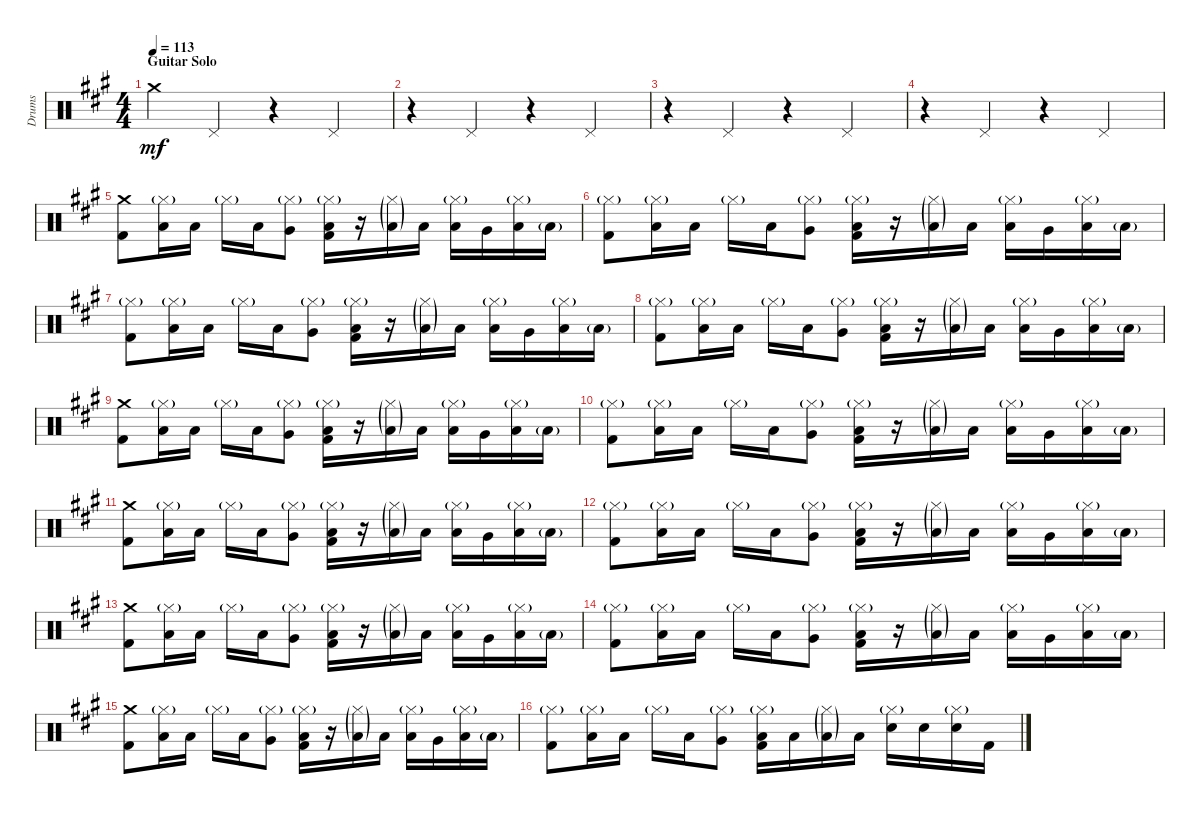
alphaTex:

\track ("Drums" "Drums") {instrument percussion}
\staff {score}
\articulation defaults
\ts (4 4)
\section ("" "Guitar Solo")
\tempo 113
\clef neutral
\ks f#minor "Crash medium (hit)".4{dy mf} "Pedal Hi-Hat (hit)".4
r.4 "Pedal Hi-Hat (hit)".4 |
r.4 "Pedal Hi-Hat (hit)".4 r.4 "Pedal Hi-Hat (hit)".4 |
r.4 "Pedal Hi-Hat (hit)".4 r.4 "Pedal Hi-Hat (hit)".4 |
r.4 "Pedal Hi-Hat (hit)".4 r.4 "Pedal Hi-Hat (hit)".4 |
("Crash medium (hit)" "Kick (hit) 2").8 ("Hi-Hat (closed)"{g} "Low Tom (hit)").16 "Low Tom (hit)".16 "Hi-Hat (closed)"{g}.16 "Low Tom (hit)".16 ("Hi-Hat (closed)"{g} "Very Low Tom (hit)").8 ("Hi-Hat (closed)"{g} "Low Tom (hit)" "Kick (hit) 2").16 r.16 ("Hi-Hat (closed)"{g} "Low Tom (hit)"{g}).16 "Low Tom (hit)".16 ("Hi-Hat (closed)"{g} "Low Tom (hit)").16 "Very Low Tom (hit)".16 ("Hi-Hat (closed)"{g} "Low Floor Tom (hit)").16 "Low Floor Tom (hit)"{g}.16 |
("Hi-Hat (closed)"{g} "Kick (hit) 2").8 ("Hi-Hat (closed)"{g} "Low Tom (hit)").16 "Low Tom (hit)".16 "Hi-Hat (closed)"{g}.16 "Low Tom (hit)".16 ("Hi-Hat (closed)"{g} "Very Low Tom (hit)").8 ("Hi-Hat (closed)"{g} "Low Tom (hit)" "Kick (hit) 2").16 r.16 ("Hi-Hat (closed)"{g} "Low Tom (hit)"{g}).16 "Low Tom (hit)".16 ("Hi-Hat (closed)"{g} "Low Tom (hit)").16 "Very Low Tom (hit)".16 ("Hi-Hat (closed)"{g} "Low Floor Tom (hit)").16 "Low Floor Tom (hit)"{g}.16 |
("Hi-Hat (closed)"{g} "Kick (hit) 2").8 ("Hi-Hat (closed)"{g} "Low Tom (hit)").16 "Low Tom (hit)".16 "Hi-Hat (closed)"{g}.16 "Low Tom (hit)".16 ("Hi-Hat (closed)"{g} "Very Low Tom (hit)").8 ("Hi-Hat (closed)"{g} "Low Tom (hit)" "Kick (hit) 2").16 r.16 ("Hi-Hat (closed)"{g} "Low Tom (hit)"{g}).16 "Low Tom (hit)".16 ("Hi-Hat (closed)"{g} "Low Tom (hit)").16 "Very Low Tom (hit)".16 ("Hi-Hat (closed)"{g} "Low Floor Tom (hit)").16 "Low Floor Tom (hit)"{g}.16 |
("Hi-Hat (closed)"{g} "Kick (hit) 2").8 ("Hi-Hat (closed)"{g} "Low Tom (hit)").16 "Low Tom (hit)".16 "Hi-Hat (closed)"{g}.16 "Low Tom (hit)".16 ("Hi-Hat (closed)"{g} "Very Low Tom (hit)").8 ("Hi-Hat (closed)"{g} "Low Tom (hit)" "Kick (hit) 2").16 r.16 ("Hi-Hat (closed)"{g} "Low Tom (hit)"{g}).16 "Low Tom (hit)".16 ("Hi-Hat (closed)"{g} "Low Tom (hit)").16 "Very Low Tom (hit)".16 ("Hi-Hat (closed)"{g} "Low Floor Tom (hit)").16 "Low Floor Tom (hit)"{g}.16 |
("Crash medium (hit)" "Kick (hit) 2").8 ("Hi-Hat (closed)"{g} "Low Tom (hit)").16 "Low Tom (hit)".16 "Hi-Hat (closed)"{g}.16 "Low Tom (hit)".16 ("Hi-Hat (closed)"{g} "Very Low Tom (hit)").8 ("Hi-Hat (closed)"{g} "Low Tom (hit)" "Kick (hit) 2").16 r.16 ("Hi-Hat (closed)"{g} "Low Tom (hit)"{g}).16 "Low Tom (hit)".16 ("Hi-Hat (closed)"{g} "Low Tom (hit)").16 "Very Low Tom (hit)".16 ("Hi-Hat (closed)"{g} "Low Floor Tom (hit)").16 "Low Floor Tom (hit)"{g}.16 |
("Hi-Hat (closed)"{g} "Kick (hit) 2").8 ("Hi-Hat (closed)"{g} "Low Tom (hit)").16 "Low Tom (hit)".16 "Hi-Hat (closed)"{g}.16 "Low Tom (hit)".16 ("Hi-Hat (closed)"{g} "Very Low Tom (hit)").8 ("Hi-Hat (closed)"{g} "Low Tom (hit)" "Kick (hit) 2").16 r.16 ("Hi-Hat (closed)"{g} "Low Tom (hit)"{g}).16 "Low Tom (hit)".16 ("Hi-Hat (closed)"{g} "Low Tom (hit)").16 "Very Low Tom (hit)".16 ("Hi-Hat (closed)"{g} "Low Floor Tom (hit)").16 "Low Floor Tom (hit)"{g}.16 |
("Crash medium (hit)" "Kick (hit) 2").8 ("Hi-Hat (closed)"{g} "Low Tom (hit)").16 "Low Tom (hit)".16 "Hi-Hat (closed)"{g}.16 "Low Tom (hit)".16 ("Hi-Hat (closed)"{g} "Very Low Tom (hit)").8 ("Hi-Hat (closed)"{g} "Low Tom (hit)" "Kick (hit) 2").16 r.16 ("Hi-Hat (closed)"{g} "Low Tom (hit)"{g}).16 "Low Tom (hit)".16 ("Hi-Hat (closed)"{g} "Low Tom (hit)").16 "Very Low Tom (hit)".16 ("Hi-Hat (closed)"{g} "Low Floor Tom (hit)").16 "Low Floor Tom (hit)"{g}.16 |
("Hi-Hat (closed)"{g} "Kick (hit) 2").8 ("Hi-Hat (closed)"{g} "Low Tom (hit)").16 "Low Tom (hit)".16 "Hi-Hat (closed)"{g}.16 "Low Tom (hit)".16 ("Hi-Hat (closed)"{g} "Very Low Tom (hit)").8 ("Hi-Hat (closed)"{g} "Low Tom (hit)" "Kick (hit) 2").16 r.16 ("Hi-Hat (closed)"{g} "Low Tom (hit)"{g}).16 "Low Tom (hit)".16 ("Hi-Hat (closed)"{g} "Low Tom (hit)").16 "Very Low Tom (hit)".16 ("Hi-Hat (closed)"{g} "Low Floor Tom (hit)").16 "Low Floor Tom (hit)"{g}.16 |
("Crash medium (hit)" "Kick (hit) 2").8 ("Hi-Hat (closed)"{g} "Low Tom (hit)").16 "Low Tom (hit)".16 "Hi-Hat (closed)"{g}.16 "Low Tom (hit)".16 ("Hi-Hat (closed)"{g} "Very Low Tom (hit)").8 ("Hi-Hat (closed)"{g} "Low Tom (hit)" "Kick (hit) 2").16 r.16 ("Hi-Hat (closed)"{g} "Low Tom (hit)"{g}).16 "Low Tom (hit)".16 ("Hi-Hat (closed)"{g} "Low Tom (hit)").16 "Very Low Tom (hit)".16 ("Hi-Hat (closed)"{g} "Low Floor Tom (hit)").16 "Low Floor Tom (hit)"{g}.16 |
("Hi-Hat (closed)"{g} "Kick (hit) 2").8 ("Hi-Hat (closed)"{g} "Low Tom (hit)").16 "Low Tom (hit)".16 "Hi-Hat (closed)"{g}.16 "Low Tom (hit)".16 ("Hi-Hat (closed)"{g} "Very Low Tom (hit)").8 ("Hi-Hat (closed)"{g} "Low Tom (hit)" "Kick (hit) 2").16 r.16 ("Hi-Hat (closed)"{g} "Low Tom (hit)"{g}).16 "Low Tom (hit)".16 ("Hi-Hat (closed)"{g} "Low Tom (hit)").16 "Very Low Tom (hit)".16 ("Hi-Hat (closed)"{g} "Low Floor Tom (hit)").16 "Low Floor Tom (hit)"{g}.16 |
("Crash medium (hit)" "Kick (hit) 2").8 ("Hi-Hat (closed)"{g} "Low Tom (hit)").16 "Low Tom (hit)".16 "Hi-Hat (closed)"{g}.16 "Low Tom (hit)".16 ("Hi-Hat (closed)"{g} "Very Low Tom (hit)").8 ("Hi-Hat (closed)"{g} "Low Tom (hit)" "Kick (hit) 2").16 r.16 ("Hi-Hat (closed)"{g} "Low Tom (hit)"{g}).16 "Low Tom (hit)".16 ("Hi-Hat (closed)"{g} "Low Tom (hit)").16 "Very Low Tom (hit)".16 ("Hi-Hat (closed)"{g} "Low Floor Tom (hit)").16 "Low Floor Tom (hit)"{g}.16 |
("Hi-Hat (closed)"{g} "Kick (hit) 2").8 ("Hi-Hat (closed)"{g} "Low Tom (hit)").16 "Low Tom (hit)".16 "Hi-Hat (closed)"{g}.16 "Low Tom (hit)".16 ("Hi-Hat (closed)"{g} "Very Low Tom (hit)").8 ("Hi-Hat (closed)"{g} "Low Tom (hit)" "Kick (hit) 2").16 "Low Tom (hit)".16 ("Hi-Hat (closed)"{g} "Low Tom (hit)"{g}).16 "Low Tom (hit)".16 ("Hi-Hat (closed)"{g} "Snare (hit) 2").16 "Snare (hit) 2".16 ("Hi-Hat (closed)"{g} "Snare (hit) 2").16 "Kick (hit) 2".16
